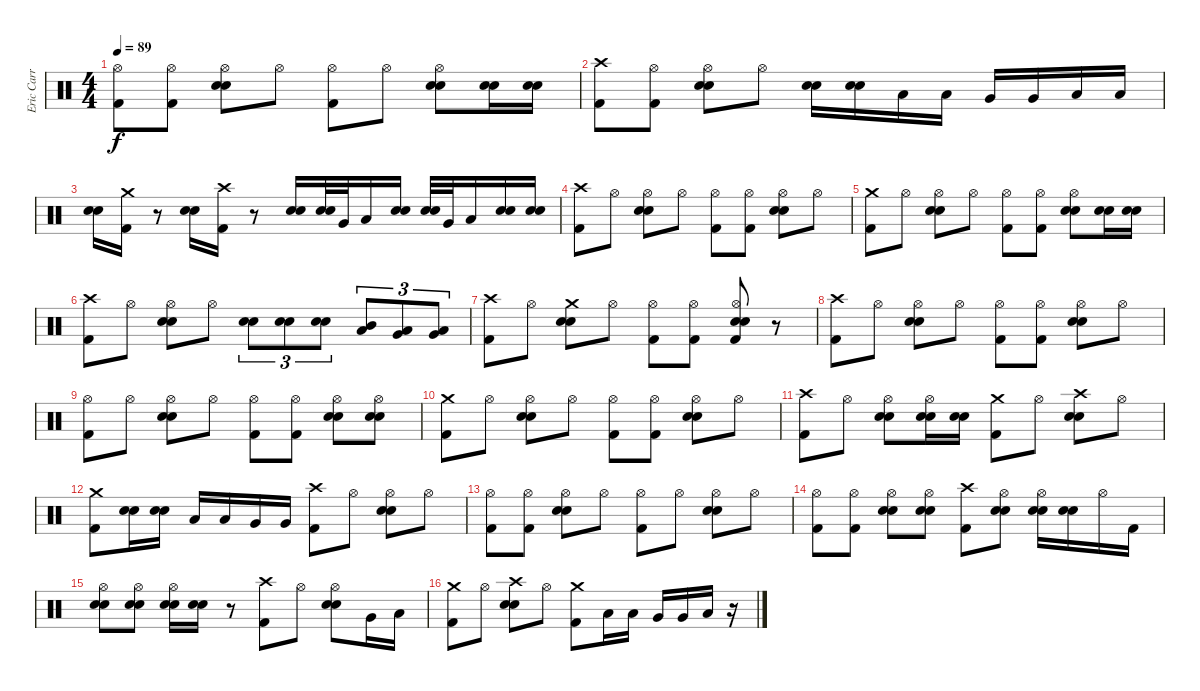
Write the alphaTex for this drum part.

\track ("Eric Carr (The Fox)" "Eric Carr ") {instrument percussion}
\staff {score}
\articulation defaults
\ts (4 4)
\tempo 89
\clef neutral
\ks c
("Kick (hit) 2" "Hi-Hat (open)").8{dy f} ("Kick (hit) 2" "Hi-Hat (open)").8 ("Electric Snare (hit)" "Snare (hit) 2" "Hi-Hat (open)").8 "Hi-Hat (open)".8 ("Kick (hit) 2" "Hi-Hat (open)").8 "Hi-Hat (open)".8 ("Electric Snare (hit)" "Snare (hit) 2" "Hi-Hat (open)").8 ("Electric Snare (hit)" "Snare (hit) 2").16 ("Electric Snare (hit)" "Snare (hit) 2").16 |
("Crash high (hit)" "Kick (hit) 2").8 ("Hi-Hat (open)" "Kick (hit) 2").8 ("Electric Snare (hit)" "Hi-Hat (open)" "Snare (hit) 2").8 "Hi-Hat (open)".8 ("Electric Snare (hit)" "Snare (hit) 2").16 ("Electric Snare (hit)" "Snare (hit) 2").16 "Low Tom (hit)".16 "Low Tom (hit)".16 "Very Low Tom (hit)".16 "Very Low Tom (hit)".16 "Low Floor Tom (hit)".16 "Low Floor Tom (hit)".16 |
("Electric Snare (hit)" "Snare (hit) 2").16 ("Crash medium (hit)" "Kick (hit) 2").16 r.8 ("Electric Snare (hit)" "Snare (hit) 2").16 ("Crash high (hit)" "Kick (hit) 2").16 r.8 ("Electric Snare (hit)" "Snare (hit) 2").16 ("Electric Snare (hit)" "Snare (hit) 2").32 "Very Low Tom (hit)".32 "Low Floor Tom (hit)".16 ("Electric Snare (hit)" "Snare (hit) 2").16 ("Electric Snare (hit)" "Snare (hit) 2").32 "Very Low Tom (hit)".32 "Low Floor Tom (hit)".16 ("Electric Snare (hit)" "Snare (hit) 2").16 ("Electric Snare (hit)" "Snare (hit) 2").16 |
("Crash high (hit)" "Kick (hit) 2").8 "Hi-Hat (open)".8 ("Electric Snare (hit)" "Snare (hit) 2" "Hi-Hat (open)").8 "Hi-Hat (open)".8 ("Kick (hit) 2" "Hi-Hat (open)").8 ("Kick (hit) 2" "Hi-Hat (open)").8 ("Electric Snare (hit)" "Snare (hit) 2" "Hi-Hat (open)").8 "Hi-Hat (open)".8 |
("Crash medium (hit)" "Kick (hit) 2").8 "Hi-Hat (open)".8 ("Electric Snare (hit)" "Snare (hit) 2" "Hi-Hat (open)").8 "Hi-Hat (open)".8 ("Kick (hit) 2" "Hi-Hat (open)").8 ("Kick (hit) 2" "Hi-Hat (open)").8 ("Electric Snare (hit)" "Snare (hit) 2" "Hi-Hat (open)").8 ("Electric Snare (hit)" "Snare (hit) 2").16 ("Electric Snare (hit)" "Snare (hit) 2").16 |
("Crash high (hit)" "Kick (hit) 2").8 "Hi-Hat (open)".8 ("Electric Snare (hit)" "Snare (hit) 2" "Hi-Hat (open)").8 "Hi-Hat (open)".8 ("Snare (hit) 2" "Electric Snare (hit)").8{tu (3 2)} ("Snare (hit) 2" "Electric Snare (hit)").8{tu (3 2)} ("Snare (hit) 2" "Electric Snare (hit)").8{tu (3 2)} ("Low Tom (hit)" "Mid Tom (hit)").8{tu (3 2)} ("Low Tom (hit)" "Very Low Tom (hit)").8{tu (3 2)} ("Low Floor Tom (hit)" "Very Low Tom (hit)").8{tu (3 2)} |
("Crash high (hit)" "Kick (hit) 2").8 "Hi-Hat (open)".8 ("Electric Snare (hit)" "Crash medium (hit)" "Snare (hit) 2").8 "Hi-Hat (open)".8 ("Kick (hit) 2" "Hi-Hat (open)").8 ("Kick (hit) 2" "Hi-Hat (open)").8 ("Kick (hit) 2" "Electric Snare (hit)" "Snare (hit) 2" "Hi-Hat (open)").8 r.8 |
("Crash high (hit)" "Kick (hit) 2").8 "Hi-Hat (open)".8 ("Electric Snare (hit)" "Snare (hit) 2" "Hi-Hat (open)").8 "Hi-Hat (open)".8 ("Kick (hit) 2" "Hi-Hat (open)").8 ("Kick (hit) 2" "Hi-Hat (open)").8 ("Electric Snare (hit)" "Snare (hit) 2" "Hi-Hat (open)").8 "Hi-Hat (open)".8 |
("Kick (hit) 2" "Hi-Hat (open)").8 "Hi-Hat (open)".8 ("Electric Snare (hit)" "Snare (hit) 2" "Hi-Hat (open)").8 "Hi-Hat (open)".8 ("Kick (hit) 2" "Hi-Hat (open)").8 ("Kick (hit) 2" "Hi-Hat (open)").8 ("Electric Snare (hit)" "Snare (hit) 2" "Hi-Hat (open)").8 ("Electric Snare (hit)" "Snare (hit) 2" "Hi-Hat (open)").8 |
("Crash medium (hit)" "Kick (hit) 2").8 "Hi-Hat (open)".8 ("Electric Snare (hit)" "Snare (hit) 2" "Hi-Hat (open)").8 "Hi-Hat (open)".8 ("Kick (hit) 2" "Hi-Hat (open)").8 ("Kick (hit) 2" "Hi-Hat (open)").8 ("Electric Snare (hit)" "Snare (hit) 2" "Hi-Hat (open)").8 "Hi-Hat (open)".8 |
("Crash high (hit)" "Kick (hit) 2").8 "Hi-Hat (open)".8 ("Electric Snare (hit)" "Hi-Hat (open)" "Snare (hit) 2").8 ("Electric Snare (hit)" "Snare (hit) 2" "Hi-Hat (open)").16 ("Electric Snare (hit)" "Snare (hit) 2").16 ("Crash medium (hit)" "Kick (hit) 2").8 "Hi-Hat (open)".8 ("Electric Snare (hit)" "Crash high (hit)" "Snare (hit) 2").8 "Hi-Hat (open)".8 |
("Crash medium (hit)" "Kick (hit) 2").8 ("Electric Snare (hit)" "Snare (hit) 2").16 ("Electric Snare (hit)" "Snare (hit) 2").16 "Low Tom (hit)".16 "Low Tom (hit)".16 "Very Low Tom (hit)".16 "Very Low Tom (hit)".16 ("Crash high (hit)" "Kick (hit) 2").8 "Hi-Hat (open)".8 ("Electric Snare (hit)" "Snare (hit) 2" "Hi-Hat (open)").8 "Hi-Hat (open)".8 |
("Kick (hit) 2" "Hi-Hat (open)").8 ("Kick (hit) 2" "Hi-Hat (open)").8 ("Electric Snare (hit)" "Snare (hit) 2" "Hi-Hat (open)").8 "Hi-Hat (open)".8 ("Kick (hit) 2" "Hi-Hat (open)").8 "Hi-Hat (open)".8 ("Electric Snare (hit)" "Snare (hit) 2" "Hi-Hat (open)").8 "Hi-Hat (open)".8 |
("Kick (hit) 2" "Hi-Hat (open)").8 ("Kick (hit) 2" "Hi-Hat (open)").8 ("Electric Snare (hit)" "Snare (hit) 2" "Hi-Hat (open)").8 ("Electric Snare (hit)" "Snare (hit) 2" "Hi-Hat (open)").8 ("Crash high (hit)" "Kick (hit) 2").8 ("Electric Snare (hit)" "Snare (hit) 2" "Hi-Hat (open)").8 ("Electric Snare (hit)" "Snare (hit) 2" "Hi-Hat (open)").16 ("Electric Snare (hit)" "Snare (hit) 2").16 "Hi-Hat (open)".16 "Kick (hit) 2".16 |
("Electric Snare (hit)" "Snare (hit) 2" "Hi-Hat (open)").8 ("Electric Snare (hit)" "Snare (hit) 2" "Hi-Hat (open)").8 ("Electric Snare (hit)" "Snare (hit) 2" "Hi-Hat (open)").16 ("Electric Snare (hit)" "Snare (hit) 2").16 r.8 ("Crash high (hit)" "Kick (hit) 2").8 "Hi-Hat (open)".8 ("Electric Snare (hit)" "Hi-Hat (open)" "Snare (hit) 2").8 "Very Low Tom (hit)".16 "Low Floor Tom (hit)".16 |
("Crash medium (hit)" "Kick (hit) 2").8 "Hi-Hat (open)".8 ("Electric Snare (hit)" "Crash high (hit)" "Snare (hit) 2").8 "Hi-Hat (open)".8 ("Crash medium (hit)" "Kick (hit) 2").8 "Low Tom (hit)".16 "Low Tom (hit)".16 "Very Low Tom (hit)".16 "Very Low Tom (hit)".16 "Low Floor Tom (hit)".16 r.16
